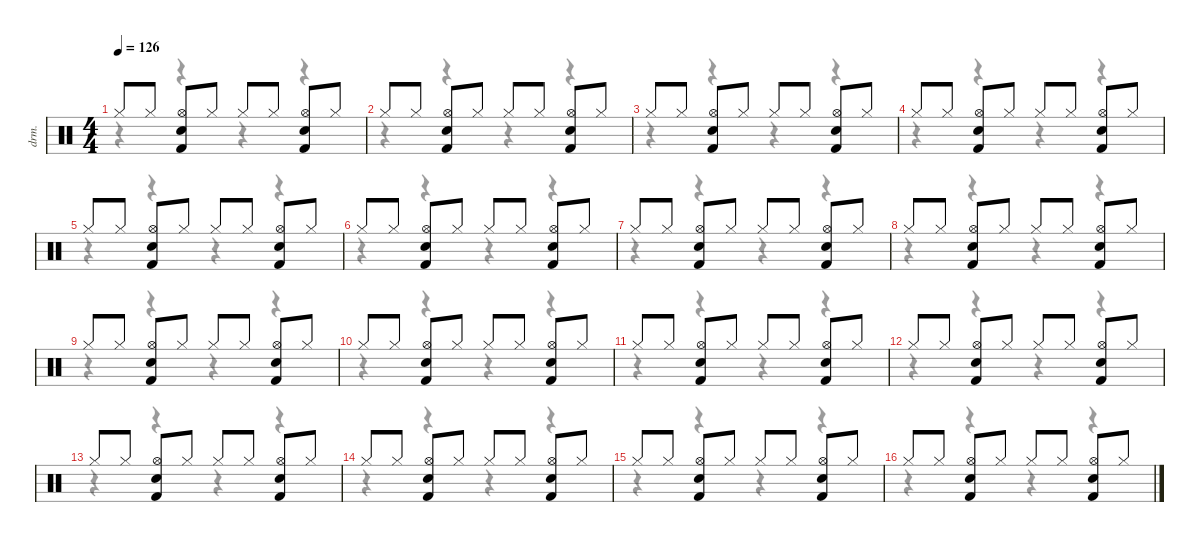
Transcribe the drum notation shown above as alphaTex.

\defaultSystemsLayout 4
\hideDynamics
\bracketExtendMode nobrackets
\otherSystemsTrackNameOrientation horizontal
\track ("drums" "drm.") {instrument percussion}
\staff {score}
\articulation defaults
\voice
\ts (4 4)
\tempo 126
\clef neutral
\ks c "Hi-Hat (closed)".8{dy f} "Hi-Hat (closed)".8
("Snare (hit) 2" "Hi-Hat (open)" "Kick (hit) 2").8 "Hi-Hat (closed)".8 "Hi-Hat (closed)".8 "Hi-Hat (closed)".8 ("Snare (hit) 2" "Hi-Hat (open)" "Kick (hit) 2").8 "Hi-Hat (closed)".8 |
"Hi-Hat (closed)".8 "Hi-Hat (closed)".8 ("Snare (hit) 2" "Hi-Hat (open)" "Kick (hit) 2").8 "Hi-Hat (closed)".8 "Hi-Hat (closed)".8 "Hi-Hat (closed)".8 ("Snare (hit) 2" "Hi-Hat (open)" "Kick (hit) 2").8 "Hi-Hat (closed)".8 |
"Hi-Hat (closed)".8 "Hi-Hat (closed)".8 ("Snare (hit) 2" "Hi-Hat (open)" "Kick (hit) 2").8 "Hi-Hat (closed)".8 "Hi-Hat (closed)".8 "Hi-Hat (closed)".8 ("Snare (hit) 2" "Hi-Hat (open)" "Kick (hit) 2").8 "Hi-Hat (closed)".8 |
"Hi-Hat (closed)".8 "Hi-Hat (closed)".8 ("Snare (hit) 2" "Hi-Hat (open)" "Kick (hit) 2").8 "Hi-Hat (closed)".8 "Hi-Hat (closed)".8 "Hi-Hat (closed)".8 ("Snare (hit) 2" "Hi-Hat (open)" "Kick (hit) 2").8 "Hi-Hat (closed)".8 |
"Hi-Hat (closed)".8 "Hi-Hat (closed)".8 ("Snare (hit) 2" "Hi-Hat (open)" "Kick (hit) 2").8 "Hi-Hat (closed)".8 "Hi-Hat (closed)".8 "Hi-Hat (closed)".8 ("Snare (hit) 2" "Hi-Hat (open)" "Kick (hit) 2").8 "Hi-Hat (closed)".8 |
"Hi-Hat (closed)".8 "Hi-Hat (closed)".8 ("Snare (hit) 2" "Hi-Hat (open)" "Kick (hit) 2").8 "Hi-Hat (closed)".8 "Hi-Hat (closed)".8 "Hi-Hat (closed)".8 ("Snare (hit) 2" "Hi-Hat (open)" "Kick (hit) 2").8 "Hi-Hat (closed)".8 |
"Hi-Hat (closed)".8 "Hi-Hat (closed)".8 ("Snare (hit) 2" "Hi-Hat (open)" "Kick (hit) 2").8 "Hi-Hat (closed)".8 "Hi-Hat (closed)".8 "Hi-Hat (closed)".8 ("Snare (hit) 2" "Hi-Hat (open)" "Kick (hit) 2").8 "Hi-Hat (closed)".8 |
"Hi-Hat (closed)".8 "Hi-Hat (closed)".8 ("Snare (hit) 2" "Hi-Hat (open)" "Kick (hit) 2").8 "Hi-Hat (closed)".8 "Hi-Hat (closed)".8 "Hi-Hat (closed)".8 ("Snare (hit) 2" "Hi-Hat (open)" "Kick (hit) 2").8 "Hi-Hat (closed)".8 |
"Hi-Hat (closed)".8 "Hi-Hat (closed)".8 ("Snare (hit) 2" "Hi-Hat (open)" "Kick (hit) 2").8 "Hi-Hat (closed)".8 "Hi-Hat (closed)".8 "Hi-Hat (closed)".8 ("Snare (hit) 2" "Hi-Hat (open)" "Kick (hit) 2").8 "Hi-Hat (closed)".8 |
"Hi-Hat (closed)".8 "Hi-Hat (closed)".8 ("Snare (hit) 2" "Hi-Hat (open)" "Kick (hit) 2").8 "Hi-Hat (closed)".8 "Hi-Hat (closed)".8 "Hi-Hat (closed)".8 ("Snare (hit) 2" "Hi-Hat (open)" "Kick (hit) 2").8 "Hi-Hat (closed)".8 |
"Hi-Hat (closed)".8 "Hi-Hat (closed)".8 ("Snare (hit) 2" "Hi-Hat (open)" "Kick (hit) 2").8 "Hi-Hat (closed)".8 "Hi-Hat (closed)".8 "Hi-Hat (closed)".8 ("Snare (hit) 2" "Hi-Hat (open)" "Kick (hit) 2").8 "Hi-Hat (closed)".8 |
"Hi-Hat (closed)".8 "Hi-Hat (closed)".8 ("Snare (hit) 2" "Hi-Hat (open)" "Kick (hit) 2").8 "Hi-Hat (closed)".8 "Hi-Hat (closed)".8 "Hi-Hat (closed)".8 ("Snare (hit) 2" "Hi-Hat (open)" "Kick (hit) 2").8 "Hi-Hat (closed)".8 |
"Hi-Hat (closed)".8 "Hi-Hat (closed)".8 ("Snare (hit) 2" "Hi-Hat (open)" "Kick (hit) 2").8 "Hi-Hat (closed)".8 "Hi-Hat (closed)".8 "Hi-Hat (closed)".8 ("Snare (hit) 2" "Hi-Hat (open)" "Kick (hit) 2").8 "Hi-Hat (closed)".8 |
"Hi-Hat (closed)".8 "Hi-Hat (closed)".8 ("Snare (hit) 2" "Hi-Hat (open)" "Kick (hit) 2").8 "Hi-Hat (closed)".8 "Hi-Hat (closed)".8 "Hi-Hat (closed)".8 ("Snare (hit) 2" "Hi-Hat (open)" "Kick (hit) 2").8 "Hi-Hat (closed)".8 |
"Hi-Hat (closed)".8 "Hi-Hat (closed)".8 ("Snare (hit) 2" "Hi-Hat (open)" "Kick (hit) 2").8 "Hi-Hat (closed)".8 "Hi-Hat (closed)".8 "Hi-Hat (closed)".8 ("Snare (hit) 2" "Hi-Hat (open)" "Kick (hit) 2").8 "Hi-Hat (closed)".8 |
"Hi-Hat (closed)".8 "Hi-Hat (closed)".8 ("Snare (hit) 2" "Hi-Hat (open)" "Kick (hit) 2").8 "Hi-Hat (closed)".8 "Hi-Hat (closed)".8 "Hi-Hat (closed)".8 ("Snare (hit) 2" "Hi-Hat (open)" "Kick (hit) 2").8 "Hi-Hat (closed)".8
\voice
\clef neutral
\ottava regular
\simile none
\ks c
r.4{dy mf} r.4 r.4 r.4 |
r.4 r.4 r.4 r.4 |
r.4 r.4 r.4 r.4 |
r.4 r.4 r.4 r.4 |
r.4 r.4 r.4 r.4 |
r.4 r.4 r.4 r.4 |
r.4 r.4 r.4 r.4 |
r.4 r.4 r.4 r.4 |
r.4 r.4 r.4 r.4 |
r.4 r.4 r.4 r.4 |
r.4 r.4 r.4 r.4 |
r.4 r.4 r.4 r.4 |
r.4 r.4 r.4 r.4 |
r.4 r.4 r.4 r.4 |
r.4 r.4 r.4 r.4 |
r.4 r.4 r.4 r.4
